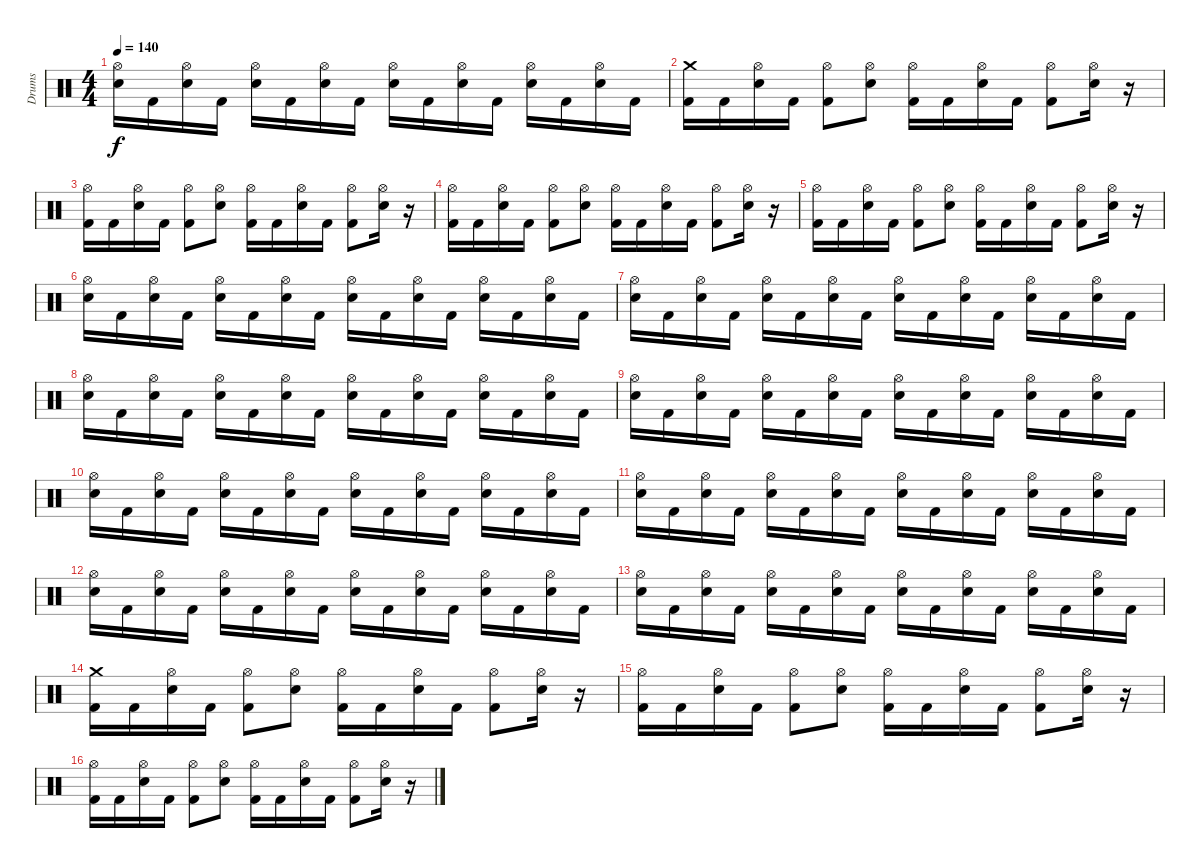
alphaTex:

\track ("Drums" "Drums") {instrument percussion}
\staff {score}
\articulation defaults
\ts (4 4)
\tempo 140
\clef neutral
\ks c
("Electric Snare (hit)" "Hi-Hat (open)").16{dy f} "Kick (hit) 2".16 ("Electric Snare (hit)" "Hi-Hat (open)").16 "Kick (hit) 2".16 ("Electric Snare (hit)" "Hi-Hat (open)").16 "Kick (hit) 2".16 ("Electric Snare (hit)" "Hi-Hat (open)").16 "Kick (hit) 2".16 ("Electric Snare (hit)" "Hi-Hat (open)").16 "Kick (hit) 2".16 ("Electric Snare (hit)" "Hi-Hat (open)").16 "Kick (hit) 2".16 ("Electric Snare (hit)" "Hi-Hat (open)").16 "Kick (hit) 2".16 ("Electric Snare (hit)" "Hi-Hat (open)").16 "Kick (hit) 2".16 |
("Kick (hit) 2" "Crash medium (hit)").16 "Kick (hit) 2".16 ("Electric Snare (hit)" "Hi-Hat (open)").16 "Kick (hit) 2".16 ("Kick (hit) 2" "Hi-Hat (open)").8 ("Electric Snare (hit)" "Hi-Hat (open)").8 ("Kick (hit) 2" "Hi-Hat (open)").16 "Kick (hit) 2".16 ("Electric Snare (hit)" "Hi-Hat (open)").16 "Kick (hit) 2".16 ("Kick (hit) 2" "Hi-Hat (open)").8 ("Electric Snare (hit)" "Hi-Hat (open)").16 r.16 |
("Kick (hit) 2" "Hi-Hat (open)").16 "Kick (hit) 2".16 ("Electric Snare (hit)" "Hi-Hat (open)").16 "Kick (hit) 2".16 ("Kick (hit) 2" "Hi-Hat (open)").8 ("Electric Snare (hit)" "Hi-Hat (open)").8 ("Kick (hit) 2" "Hi-Hat (open)").16 "Kick (hit) 2".16 ("Electric Snare (hit)" "Hi-Hat (open)").16 "Kick (hit) 2".16 ("Kick (hit) 2" "Hi-Hat (open)").8 ("Electric Snare (hit)" "Hi-Hat (open)").16 r.16 |
("Kick (hit) 2" "Hi-Hat (open)").16 "Kick (hit) 2".16 ("Electric Snare (hit)" "Hi-Hat (open)").16 "Kick (hit) 2".16 ("Kick (hit) 2" "Hi-Hat (open)").8 ("Electric Snare (hit)" "Hi-Hat (open)").8 ("Kick (hit) 2" "Hi-Hat (open)").16 "Kick (hit) 2".16 ("Electric Snare (hit)" "Hi-Hat (open)").16 "Kick (hit) 2".16 ("Kick (hit) 2" "Hi-Hat (open)").8 ("Electric Snare (hit)" "Hi-Hat (open)").16 r.16 |
("Kick (hit) 2" "Hi-Hat (open)").16 "Kick (hit) 2".16 ("Electric Snare (hit)" "Hi-Hat (open)").16 "Kick (hit) 2".16 ("Kick (hit) 2" "Hi-Hat (open)").8 ("Electric Snare (hit)" "Hi-Hat (open)").8 ("Kick (hit) 2" "Hi-Hat (open)").16 "Kick (hit) 2".16 ("Electric Snare (hit)" "Hi-Hat (open)").16 "Kick (hit) 2".16 ("Kick (hit) 2" "Hi-Hat (open)").8 ("Electric Snare (hit)" "Hi-Hat (open)").16 r.16 |
("Electric Snare (hit)" "Hi-Hat (open)").16 "Kick (hit) 2".16 ("Electric Snare (hit)" "Hi-Hat (open)").16 "Kick (hit) 2".16 ("Electric Snare (hit)" "Hi-Hat (open)").16 "Kick (hit) 2".16 ("Electric Snare (hit)" "Hi-Hat (open)").16 "Kick (hit) 2".16 ("Electric Snare (hit)" "Hi-Hat (open)").16 "Kick (hit) 2".16 ("Electric Snare (hit)" "Hi-Hat (open)").16 "Kick (hit) 2".16 ("Electric Snare (hit)" "Hi-Hat (open)").16 "Kick (hit) 2".16 ("Electric Snare (hit)" "Hi-Hat (open)").16 "Kick (hit) 2".16 |
("Electric Snare (hit)" "Hi-Hat (open)").16 "Kick (hit) 2".16 ("Electric Snare (hit)" "Hi-Hat (open)").16 "Kick (hit) 2".16 ("Electric Snare (hit)" "Hi-Hat (open)").16 "Kick (hit) 2".16 ("Electric Snare (hit)" "Hi-Hat (open)").16 "Kick (hit) 2".16 ("Electric Snare (hit)" "Hi-Hat (open)").16 "Kick (hit) 2".16 ("Electric Snare (hit)" "Hi-Hat (open)").16 "Kick (hit) 2".16 ("Electric Snare (hit)" "Hi-Hat (open)").16 "Kick (hit) 2".16 ("Electric Snare (hit)" "Hi-Hat (open)").16 "Kick (hit) 2".16 |
("Electric Snare (hit)" "Hi-Hat (open)").16 "Kick (hit) 2".16 ("Electric Snare (hit)" "Hi-Hat (open)").16 "Kick (hit) 2".16 ("Electric Snare (hit)" "Hi-Hat (open)").16 "Kick (hit) 2".16 ("Electric Snare (hit)" "Hi-Hat (open)").16 "Kick (hit) 2".16 ("Electric Snare (hit)" "Hi-Hat (open)").16 "Kick (hit) 2".16 ("Electric Snare (hit)" "Hi-Hat (open)").16 "Kick (hit) 2".16 ("Electric Snare (hit)" "Hi-Hat (open)").16 "Kick (hit) 2".16 ("Electric Snare (hit)" "Hi-Hat (open)").16 "Kick (hit) 2".16 |
("Electric Snare (hit)" "Hi-Hat (open)").16 "Kick (hit) 2".16 ("Electric Snare (hit)" "Hi-Hat (open)").16 "Kick (hit) 2".16 ("Electric Snare (hit)" "Hi-Hat (open)").16 "Kick (hit) 2".16 ("Electric Snare (hit)" "Hi-Hat (open)").16 "Kick (hit) 2".16 ("Electric Snare (hit)" "Hi-Hat (open)").16 "Kick (hit) 2".16 ("Electric Snare (hit)" "Hi-Hat (open)").16 "Kick (hit) 2".16 ("Electric Snare (hit)" "Hi-Hat (open)").16 "Kick (hit) 2".16 ("Electric Snare (hit)" "Hi-Hat (open)").16 "Kick (hit) 2".16 |
("Electric Snare (hit)" "Hi-Hat (open)").16 "Kick (hit) 2".16 ("Electric Snare (hit)" "Hi-Hat (open)").16 "Kick (hit) 2".16 ("Electric Snare (hit)" "Hi-Hat (open)").16 "Kick (hit) 2".16 ("Electric Snare (hit)" "Hi-Hat (open)").16 "Kick (hit) 2".16 ("Electric Snare (hit)" "Hi-Hat (open)").16 "Kick (hit) 2".16 ("Electric Snare (hit)" "Hi-Hat (open)").16 "Kick (hit) 2".16 ("Electric Snare (hit)" "Hi-Hat (open)").16 "Kick (hit) 2".16 ("Electric Snare (hit)" "Hi-Hat (open)").16 "Kick (hit) 2".16 |
("Electric Snare (hit)" "Hi-Hat (open)").16 "Kick (hit) 2".16 ("Electric Snare (hit)" "Hi-Hat (open)").16 "Kick (hit) 2".16 ("Electric Snare (hit)" "Hi-Hat (open)").16 "Kick (hit) 2".16 ("Electric Snare (hit)" "Hi-Hat (open)").16 "Kick (hit) 2".16 ("Electric Snare (hit)" "Hi-Hat (open)").16 "Kick (hit) 2".16 ("Electric Snare (hit)" "Hi-Hat (open)").16 "Kick (hit) 2".16 ("Electric Snare (hit)" "Hi-Hat (open)").16 "Kick (hit) 2".16 ("Electric Snare (hit)" "Hi-Hat (open)").16 "Kick (hit) 2".16 |
("Electric Snare (hit)" "Hi-Hat (open)").16 "Kick (hit) 2".16 ("Electric Snare (hit)" "Hi-Hat (open)").16 "Kick (hit) 2".16 ("Electric Snare (hit)" "Hi-Hat (open)").16 "Kick (hit) 2".16 ("Electric Snare (hit)" "Hi-Hat (open)").16 "Kick (hit) 2".16 ("Electric Snare (hit)" "Hi-Hat (open)").16 "Kick (hit) 2".16 ("Electric Snare (hit)" "Hi-Hat (open)").16 "Kick (hit) 2".16 ("Electric Snare (hit)" "Hi-Hat (open)").16 "Kick (hit) 2".16 ("Electric Snare (hit)" "Hi-Hat (open)").16 "Kick (hit) 2".16 |
("Electric Snare (hit)" "Hi-Hat (open)").16 "Kick (hit) 2".16 ("Electric Snare (hit)" "Hi-Hat (open)").16 "Kick (hit) 2".16 ("Electric Snare (hit)" "Hi-Hat (open)").16 "Kick (hit) 2".16 ("Electric Snare (hit)" "Hi-Hat (open)").16 "Kick (hit) 2".16 ("Electric Snare (hit)" "Hi-Hat (open)").16 "Kick (hit) 2".16 ("Electric Snare (hit)" "Hi-Hat (open)").16 "Kick (hit) 2".16 ("Electric Snare (hit)" "Hi-Hat (open)").16 "Kick (hit) 2".16 ("Electric Snare (hit)" "Hi-Hat (open)").16 "Kick (hit) 2".16 |
("Kick (hit) 2" "Crash medium (hit)").16 "Kick (hit) 2".16 ("Electric Snare (hit)" "Hi-Hat (open)").16 "Kick (hit) 2".16 ("Kick (hit) 2" "Hi-Hat (open)").8 ("Electric Snare (hit)" "Hi-Hat (open)").8 ("Kick (hit) 2" "Hi-Hat (open)").16 "Kick (hit) 2".16 ("Electric Snare (hit)" "Hi-Hat (open)").16 "Kick (hit) 2".16 ("Kick (hit) 2" "Hi-Hat (open)").8 ("Electric Snare (hit)" "Hi-Hat (open)").16 r.16 |
("Kick (hit) 2" "Hi-Hat (open)").16 "Kick (hit) 2".16 ("Electric Snare (hit)" "Hi-Hat (open)").16 "Kick (hit) 2".16 ("Kick (hit) 2" "Hi-Hat (open)").8 ("Electric Snare (hit)" "Hi-Hat (open)").8 ("Kick (hit) 2" "Hi-Hat (open)").16 "Kick (hit) 2".16 ("Electric Snare (hit)" "Hi-Hat (open)").16 "Kick (hit) 2".16 ("Kick (hit) 2" "Hi-Hat (open)").8 ("Electric Snare (hit)" "Hi-Hat (open)").16 r.16 |
("Kick (hit) 2" "Hi-Hat (open)").16 "Kick (hit) 2".16 ("Electric Snare (hit)" "Hi-Hat (open)").16 "Kick (hit) 2".16 ("Kick (hit) 2" "Hi-Hat (open)").8 ("Electric Snare (hit)" "Hi-Hat (open)").8 ("Kick (hit) 2" "Hi-Hat (open)").16 "Kick (hit) 2".16 ("Electric Snare (hit)" "Hi-Hat (open)").16 "Kick (hit) 2".16 ("Kick (hit) 2" "Hi-Hat (open)").8 ("Electric Snare (hit)" "Hi-Hat (open)").16 r.16
